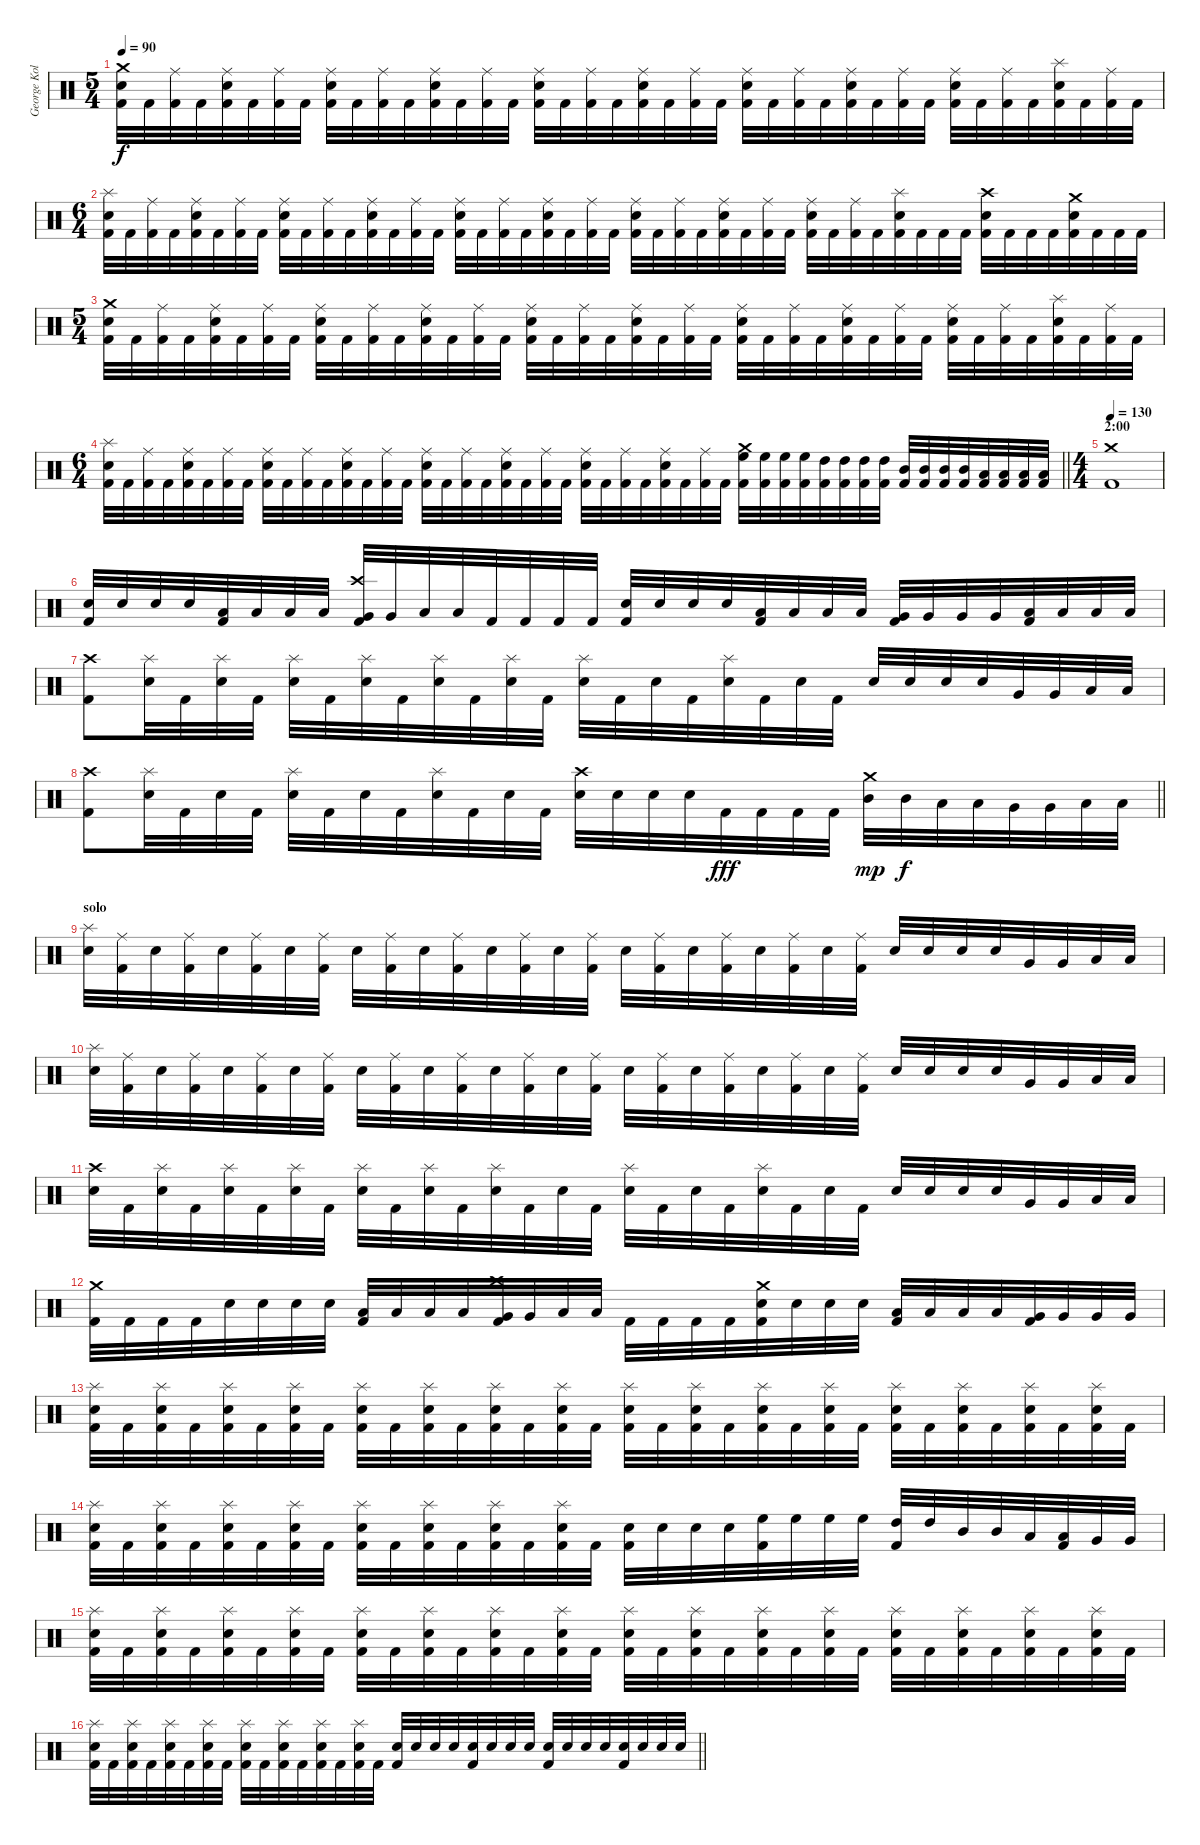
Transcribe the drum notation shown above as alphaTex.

\track ("George Kollias" "George Kol") {instrument percussion}
\staff {score}
\articulation defaults
\ts (5 4)
\tempo 90
\clef neutral
\ks c
("Crash medium (hit)" "Electric Snare (hit)" "Kick (hit) 2").32{dy f} "Kick (hit) 2".32 ("Ride (middle)" "Kick (hit) 2").32 "Kick (hit) 2".32 ("Ride (middle)" "Electric Snare (hit)" "Kick (hit) 2").32 "Kick (hit) 2".32 ("Ride (middle)" "Kick (hit) 2").32 "Kick (hit) 2".32 ("Ride (middle)" "Electric Snare (hit)" "Kick (hit) 2").32 "Kick (hit) 2".32 ("Ride (middle)" "Kick (hit) 2").32 "Kick (hit) 2".32 ("Ride (middle)" "Electric Snare (hit)" "Kick (hit) 2").32 "Kick (hit) 2".32 ("Ride (middle)" "Kick (hit) 2").32 "Kick (hit) 2".32 ("Ride (middle)" "Electric Snare (hit)" "Kick (hit) 2").32 "Kick (hit) 2".32 ("Ride (middle)" "Kick (hit) 2").32 "Kick (hit) 2".32 ("Ride (middle)" "Electric Snare (hit)" "Kick (hit) 2").32 "Kick (hit) 2".32 ("Ride (middle)" "Kick (hit) 2").32 "Kick (hit) 2".32 ("Ride (middle)" "Electric Snare (hit)" "Kick (hit) 2").32 "Kick (hit) 2".32 ("Ride (middle)" "Kick (hit) 2").32 "Kick (hit) 2".32 ("Ride (middle)" "Electric Snare (hit)" "Kick (hit) 2").32 "Kick (hit) 2".32 ("Ride (middle)" "Kick (hit) 2").32 "Kick (hit) 2".32 ("Ride (middle)" "Electric Snare (hit)" "Kick (hit) 2").32 "Kick (hit) 2".32 ("Ride (middle)" "Kick (hit) 2").32 "Kick (hit) 2".32 ("Splash (hit)" "Electric Snare (hit)" "Kick (hit) 2").32 "Kick (hit) 2".32 ("Ride (middle)" "Kick (hit) 2").32 "Kick (hit) 2".32 |
\ts (6 4)
("Splash (hit)" "Electric Snare (hit)" "Kick (hit) 2").32 "Kick (hit) 2".32 ("Ride (middle)" "Kick (hit) 2").32 "Kick (hit) 2".32 ("Ride (middle)" "Electric Snare (hit)" "Kick (hit) 2").32 "Kick (hit) 2".32 ("Ride (middle)" "Kick (hit) 2").32 "Kick (hit) 2".32 ("Ride (middle)" "Electric Snare (hit)" "Kick (hit) 2").32 "Kick (hit) 2".32 ("Ride (middle)" "Kick (hit) 2").32 "Kick (hit) 2".32 ("Ride (middle)" "Electric Snare (hit)" "Kick (hit) 2").32 "Kick (hit) 2".32 ("Ride (middle)" "Kick (hit) 2").32 "Kick (hit) 2".32 ("Ride (middle)" "Electric Snare (hit)" "Kick (hit) 2").32 "Kick (hit) 2".32 ("Ride (middle)" "Kick (hit) 2").32 "Kick (hit) 2".32 ("Ride (middle)" "Electric Snare (hit)" "Kick (hit) 2").32 "Kick (hit) 2".32 ("Ride (middle)" "Kick (hit) 2").32 "Kick (hit) 2".32 ("Ride (middle)" "Electric Snare (hit)" "Kick (hit) 2").32 "Kick (hit) 2".32 ("Ride (middle)" "Kick (hit) 2").32 "Kick (hit) 2".32 ("Ride (middle)" "Electric Snare (hit)" "Kick (hit) 2").32 "Kick (hit) 2".32 ("Ride (middle)" "Kick (hit) 2").32 "Kick (hit) 2".32 ("Ride (middle)" "Electric Snare (hit)" "Kick (hit) 2").32 "Kick (hit) 2".32 ("Ride (middle)" "Kick (hit) 2").32 "Kick (hit) 2".32 ("Splash (hit)" "Electric Snare (hit)" "Kick (hit) 2").32 "Kick (hit) 2".32 "Kick (hit) 2".32 "Kick (hit) 2".32 ("Crash high (hit)" "Electric Snare (hit)" "Kick (hit) 2").32 "Kick (hit) 2".32 "Kick (hit) 2".32 "Kick (hit) 2".32 ("Crash medium (hit)" "Electric Snare (hit)" "Kick (hit) 2").32 "Kick (hit) 2".32 "Kick (hit) 2".32 "Kick (hit) 2".32 |
\ts (5 4)
("Crash medium (hit)" "Electric Snare (hit)" "Kick (hit) 2").32 "Kick (hit) 2".32 ("Ride (middle)" "Kick (hit) 2").32 "Kick (hit) 2".32 ("Ride (middle)" "Electric Snare (hit)" "Kick (hit) 2").32 "Kick (hit) 2".32 ("Ride (middle)" "Kick (hit) 2").32 "Kick (hit) 2".32 ("Ride (middle)" "Electric Snare (hit)" "Kick (hit) 2").32 "Kick (hit) 2".32 ("Ride (middle)" "Kick (hit) 2").32 "Kick (hit) 2".32 ("Ride (middle)" "Electric Snare (hit)" "Kick (hit) 2").32 "Kick (hit) 2".32 ("Ride (middle)" "Kick (hit) 2").32 "Kick (hit) 2".32 ("Ride (middle)" "Electric Snare (hit)" "Kick (hit) 2").32 "Kick (hit) 2".32 ("Ride (middle)" "Kick (hit) 2").32 "Kick (hit) 2".32 ("Ride (middle)" "Electric Snare (hit)" "Kick (hit) 2").32 "Kick (hit) 2".32 ("Ride (middle)" "Kick (hit) 2").32 "Kick (hit) 2".32 ("Ride (middle)" "Electric Snare (hit)" "Kick (hit) 2").32 "Kick (hit) 2".32 ("Ride (middle)" "Kick (hit) 2").32 "Kick (hit) 2".32 ("Ride (middle)" "Electric Snare (hit)" "Kick (hit) 2").32 "Kick (hit) 2".32 ("Ride (middle)" "Kick (hit) 2").32 "Kick (hit) 2".32 ("Ride (middle)" "Electric Snare (hit)" "Kick (hit) 2").32 "Kick (hit) 2".32 ("Ride (middle)" "Kick (hit) 2").32 "Kick (hit) 2".32 ("Splash (hit)" "Electric Snare (hit)" "Kick (hit) 2").32 "Kick (hit) 2".32 ("Ride (middle)" "Kick (hit) 2").32 "Kick (hit) 2".32 |
\ts (6 4)
\barLineRight lightlight
("Splash (hit)" "Electric Snare (hit)" "Kick (hit) 2").32 "Kick (hit) 2".32 ("Ride (middle)" "Kick (hit) 2").32 "Kick (hit) 2".32 ("Ride (middle)" "Electric Snare (hit)" "Kick (hit) 2").32 "Kick (hit) 2".32 ("Ride (middle)" "Kick (hit) 2").32 "Kick (hit) 2".32 ("Ride (middle)" "Electric Snare (hit)" "Kick (hit) 2").32 "Kick (hit) 2".32 ("Ride (middle)" "Kick (hit) 2").32 "Kick (hit) 2".32 ("Ride (middle)" "Electric Snare (hit)" "Kick (hit) 2").32 "Kick (hit) 2".32 ("Ride (middle)" "Kick (hit) 2").32 "Kick (hit) 2".32 ("Ride (middle)" "Electric Snare (hit)" "Kick (hit) 2").32 "Kick (hit) 2".32 ("Ride (middle)" "Kick (hit) 2").32 "Kick (hit) 2".32 ("Ride (middle)" "Electric Snare (hit)" "Kick (hit) 2").32 "Kick (hit) 2".32 ("Ride (middle)" "Kick (hit) 2").32 "Kick (hit) 2".32 ("Ride (middle)" "Electric Snare (hit)" "Kick (hit) 2").32 "Kick (hit) 2".32 ("Ride (middle)" "Kick (hit) 2").32 "Kick (hit) 2".32 ("Ride (middle)" "Electric Snare (hit)" "Kick (hit) 2").32 "Kick (hit) 2".32 ("Ride (middle)" "Kick (hit) 2").32 "Kick (hit) 2".32 ("Crash medium (hit)" "High Floor Tom (hit)" "Kick (hit) 2").32 ("High Floor Tom (hit)" "Kick (hit) 2").32 ("High Floor Tom (hit)" "Kick (hit) 2").32 ("High Floor Tom (hit)" "Kick (hit) 2").32 ("High Tom (hit)" "Kick (hit) 2").32 ("High Tom (hit)" "Kick (hit) 2").32 ("High Tom (hit)" "Kick (hit) 2").32 ("High Tom (hit)" "Kick (hit) 2").32 ("Mid Tom (hit)" "Kick (hit) 2").32 ("Mid Tom (hit)" "Kick (hit) 2").32 ("Mid Tom (hit)" "Kick (hit) 2").32 ("Mid Tom (hit)" "Kick (hit) 2").32 ("Low Tom (hit)" "Kick (hit) 2").32 ("Low Tom (hit)" "Kick (hit) 2").32 ("Low Tom (hit)" "Kick (hit) 2").32 ("Low Tom (hit)" "Kick (hit) 2").32 |
\ts (4 4)
\section ("" "2:00")
\tempo 130
("Crash medium (hit)" "Kick (hit) 2").1 |
("Electric Snare (hit)" "Kick (hit) 2").32 "Electric Snare (hit)".32 "Electric Snare (hit)".32 "Electric Snare (hit)".32 ("Low Tom (hit)" "Kick (hit) 2").32 "Low Tom (hit)".32 "Low Tom (hit)".32 "Low Tom (hit)".32 ("Crash high (hit)" "Very Low Tom (hit)" "Kick (hit) 2").32 "Very Low Tom (hit)".32 "Low Floor Tom (hit)".32 "Low Floor Tom (hit)".32 "Kick (hit) 2".32 "Kick (hit) 2".32 "Kick (hit) 2".32 "Kick (hit) 2".32 ("Electric Snare (hit)" "Kick (hit) 2").32 "Electric Snare (hit)".32 "Electric Snare (hit)".32 "Electric Snare (hit)".32 ("Low Tom (hit)" "Kick (hit) 2").32 "Low Tom (hit)".32 "Low Tom (hit)".32 "Low Tom (hit)".32 ("Very Low Tom (hit)" "Kick (hit) 2").32 "Very Low Tom (hit)".32 "Very Low Tom (hit)".32 "Very Low Tom (hit)".32 ("Low Floor Tom (hit)" "Kick (hit) 2").32 "Low Floor Tom (hit)".32 "Low Floor Tom (hit)".32 "Low Floor Tom (hit)".32 |
("Crash high (hit)" "Kick (hit) 2").8 ("Splash (hit)" "Electric Snare (hit)").32 "Kick (hit) 2".32 ("Splash (hit)" "Electric Snare (hit)").32 "Kick (hit) 2".32 ("Splash (hit)" "Electric Snare (hit)").32 "Kick (hit) 2".32 ("Splash (hit)" "Electric Snare (hit)").32 "Kick (hit) 2".32 ("Splash (hit)" "Electric Snare (hit)").32 "Kick (hit) 2".32 ("Splash (hit)" "Electric Snare (hit)").32 "Kick (hit) 2".32 ("Splash (hit)" "Electric Snare (hit)").32 "Kick (hit) 2".32 "Electric Snare (hit)".32 "Kick (hit) 2".32 ("Splash (hit)" "Electric Snare (hit)").32 "Kick (hit) 2".32 "Electric Snare (hit)".32 "Kick (hit) 2".32 "Electric Snare (hit)".32 "Electric Snare (hit)".32 "Electric Snare (hit)".32 "Electric Snare (hit)".32 "Very Low Tom (hit)".32 "Very Low Tom (hit)".32 "Low Floor Tom (hit)".32 "Low Floor Tom (hit)".32 |
\barLineRight lightlight
("Crash high (hit)" "Kick (hit) 2").8 ("Splash (hit)" "Electric Snare (hit)").32 "Kick (hit) 2".32 "Electric Snare (hit)".32 "Kick (hit) 2".32 ("Splash (hit)" "Electric Snare (hit)").32 "Kick (hit) 2".32 "Electric Snare (hit)".32 "Kick (hit) 2".32 ("Splash (hit)" "Electric Snare (hit)").32 "Kick (hit) 2".32 "Electric Snare (hit)".32 "Kick (hit) 2".32 ("Crash high (hit)" "Electric Snare (hit)").32 "Electric Snare (hit)".32 "Electric Snare (hit)".32 "Electric Snare (hit)".32 "Kick (hit) 2".32{dy fff} "Kick (hit) 2".32 "Kick (hit) 2".32 "Kick (hit) 2".32 ("Crash medium (hit)" "Mid Tom (hit)").32{dy mp} "Mid Tom (hit)".32{dy f} "Low Tom (hit)".32 "Low Tom (hit)".32 "Very Low Tom (hit)".32 "Very Low Tom (hit)".32 "Low Floor Tom (hit)".32 "Low Floor Tom (hit)".32 |
\section ("" "solo")
("Splash (hit)" "Electric Snare (hit)").32 ("Ride (middle)" "Kick (hit) 2").32 "Electric Snare (hit)".32 ("Ride (middle)" "Kick (hit) 2").32 "Electric Snare (hit)".32 ("Ride (middle)" "Kick (hit) 2").32 "Electric Snare (hit)".32 ("Ride (middle)" "Kick (hit) 2").32 "Electric Snare (hit)".32 ("Ride (middle)" "Kick (hit) 2").32 "Electric Snare (hit)".32 ("Ride (middle)" "Kick (hit) 2").32 "Electric Snare (hit)".32 ("Ride (middle)" "Kick (hit) 2").32 "Electric Snare (hit)".32 ("Ride (middle)" "Kick (hit) 2").32 "Electric Snare (hit)".32 ("Ride (middle)" "Kick (hit) 2").32 "Electric Snare (hit)".32 ("Ride (middle)" "Kick (hit) 2").32 "Electric Snare (hit)".32 ("Ride (middle)" "Kick (hit) 2").32 "Electric Snare (hit)".32 ("Ride (middle)" "Kick (hit) 2").32 "Electric Snare (hit)".32 "Electric Snare (hit)".32 "Electric Snare (hit)".32 "Electric Snare (hit)".32 "Very Low Tom (hit)".32 "Very Low Tom (hit)".32 "Low Floor Tom (hit)".32 "Low Floor Tom (hit)".32 |
("Splash (hit)" "Electric Snare (hit)").32 ("Ride (middle)" "Kick (hit) 2").32 "Electric Snare (hit)".32 ("Ride (middle)" "Kick (hit) 2").32 "Electric Snare (hit)".32 ("Ride (middle)" "Kick (hit) 2").32 "Electric Snare (hit)".32 ("Ride (middle)" "Kick (hit) 2").32 "Electric Snare (hit)".32 ("Ride (middle)" "Kick (hit) 2").32 "Electric Snare (hit)".32 ("Ride (middle)" "Kick (hit) 2").32 "Electric Snare (hit)".32 ("Ride (middle)" "Kick (hit) 2").32 "Electric Snare (hit)".32 ("Ride (middle)" "Kick (hit) 2").32 "Electric Snare (hit)".32 ("Ride (middle)" "Kick (hit) 2").32 "Electric Snare (hit)".32 ("Ride (middle)" "Kick (hit) 2").32 "Electric Snare (hit)".32 ("Ride (middle)" "Kick (hit) 2").32 "Electric Snare (hit)".32 ("Ride (middle)" "Kick (hit) 2").32 "Electric Snare (hit)".32 "Electric Snare (hit)".32 "Electric Snare (hit)".32 "Electric Snare (hit)".32 "Very Low Tom (hit)".32 "Very Low Tom (hit)".32 "Low Floor Tom (hit)".32 "Low Floor Tom (hit)".32 |
("Crash high (hit)" "Electric Snare (hit)").32 "Kick (hit) 2".32 ("Splash (hit)" "Electric Snare (hit)").32 "Kick (hit) 2".32 ("Splash (hit)" "Electric Snare (hit)").32 "Kick (hit) 2".32 ("Splash (hit)" "Electric Snare (hit)").32 "Kick (hit) 2".32 ("Splash (hit)" "Electric Snare (hit)").32 "Kick (hit) 2".32 ("Splash (hit)" "Electric Snare (hit)").32 "Kick (hit) 2".32 ("Splash (hit)" "Electric Snare (hit)").32 "Kick (hit) 2".32 "Electric Snare (hit)".32 "Kick (hit) 2".32 ("Splash (hit)" "Electric Snare (hit)").32 "Kick (hit) 2".32 "Electric Snare (hit)".32 "Kick (hit) 2".32 ("Splash (hit)" "Electric Snare (hit)").32 "Kick (hit) 2".32 "Electric Snare (hit)".32 "Kick (hit) 2".32 "Electric Snare (hit)".32 "Electric Snare (hit)".32 "Electric Snare (hit)".32 "Electric Snare (hit)".32 "Very Low Tom (hit)".32 "Very Low Tom (hit)".32 "Low Floor Tom (hit)".32 "Low Floor Tom (hit)".32 |
("Crash medium (hit)" "Kick (hit) 2").32 "Kick (hit) 2".32 "Kick (hit) 2".32 "Kick (hit) 2".32 "Electric Snare (hit)".32 "Electric Snare (hit)".32 "Electric Snare (hit)".32 "Electric Snare (hit)".32 ("Low Tom (hit)" "Kick (hit) 2").32 "Low Tom (hit)".32 "Low Tom (hit)".32 "Low Tom (hit)".32 ("Crash high (hit)" "Very Low Tom (hit)" "Kick (hit) 2").32 "Very Low Tom (hit)".32 "Low Floor Tom (hit)".32 "Low Floor Tom (hit)".32 "Kick (hit) 2".32 "Kick (hit) 2".32 "Kick (hit) 2".32 "Kick (hit) 2".32 ("Crash medium (hit)" "Electric Snare (hit)" "Kick (hit) 2").32 "Electric Snare (hit)".32 "Electric Snare (hit)".32 "Electric Snare (hit)".32 ("Low Tom (hit)" "Kick (hit) 2").32 "Low Tom (hit)".32 "Low Tom (hit)".32 "Low Tom (hit)".32 ("Very Low Tom (hit)" "Kick (hit) 2").32 "Very Low Tom (hit)".32 "Very Low Tom (hit)".32 "Very Low Tom (hit)".32 |
("Splash (hit)" "Electric Snare (hit)" "Kick (hit) 2").32 "Kick (hit) 2".32 ("Splash (hit)" "Electric Snare (hit)" "Kick (hit) 2").32 "Kick (hit) 2".32 ("Splash (hit)" "Electric Snare (hit)" "Kick (hit) 2").32 "Kick (hit) 2".32 ("Splash (hit)" "Electric Snare (hit)" "Kick (hit) 2").32 "Kick (hit) 2".32 ("Splash (hit)" "Electric Snare (hit)" "Kick (hit) 2").32 "Kick (hit) 2".32 ("Splash (hit)" "Electric Snare (hit)" "Kick (hit) 2").32 "Kick (hit) 2".32 ("Splash (hit)" "Electric Snare (hit)" "Kick (hit) 2").32 "Kick (hit) 2".32 ("Splash (hit)" "Electric Snare (hit)" "Kick (hit) 2").32 "Kick (hit) 2".32 ("Splash (hit)" "Electric Snare (hit)" "Kick (hit) 2").32 "Kick (hit) 2".32 ("Splash (hit)" "Electric Snare (hit)" "Kick (hit) 2").32 "Kick (hit) 2".32 ("Splash (hit)" "Electric Snare (hit)" "Kick (hit) 2").32 "Kick (hit) 2".32 ("Splash (hit)" "Electric Snare (hit)" "Kick (hit) 2").32 "Kick (hit) 2".32 ("Splash (hit)" "Electric Snare (hit)" "Kick (hit) 2").32 "Kick (hit) 2".32 ("Splash (hit)" "Electric Snare (hit)" "Kick (hit) 2").32 "Kick (hit) 2".32 ("Splash (hit)" "Electric Snare (hit)" "Kick (hit) 2").32 "Kick (hit) 2".32 ("Splash (hit)" "Electric Snare (hit)" "Kick (hit) 2").32 "Kick (hit) 2".32 |
("Splash (hit)" "Electric Snare (hit)" "Kick (hit) 2").32 "Kick (hit) 2".32 ("Splash (hit)" "Electric Snare (hit)" "Kick (hit) 2").32 "Kick (hit) 2".32 ("Splash (hit)" "Electric Snare (hit)" "Kick (hit) 2").32 "Kick (hit) 2".32 ("Splash (hit)" "Electric Snare (hit)" "Kick (hit) 2").32 "Kick (hit) 2".32 ("Splash (hit)" "Electric Snare (hit)" "Kick (hit) 2").32 "Kick (hit) 2".32 ("Splash (hit)" "Electric Snare (hit)" "Kick (hit) 2").32 "Kick (hit) 2".32 ("Splash (hit)" "Electric Snare (hit)" "Kick (hit) 2").32 "Kick (hit) 2".32 ("Splash (hit)" "Electric Snare (hit)" "Kick (hit) 2").32 "Kick (hit) 2".32 ("Electric Snare (hit)" "Kick (hit) 2").32 "Electric Snare (hit)".32 "Electric Snare (hit)".32 "Electric Snare (hit)".32 ("High Floor Tom (hit)" "Kick (hit) 2").32 "High Floor Tom (hit)".32 "High Floor Tom (hit)".32 "High Floor Tom (hit)".32 ("High Tom (hit)" "Kick (hit) 2").32 "High Tom (hit)".32 "Mid Tom (hit)".32 "Mid Tom (hit)".32 "Low Tom (hit)".32 ("Low Tom (hit)" "Kick (hit) 2").32 "Very Low Tom (hit)".32 "Very Low Tom (hit)".32 |
("Splash (hit)" "Electric Snare (hit)" "Kick (hit) 2").32 "Kick (hit) 2".32 ("Splash (hit)" "Electric Snare (hit)" "Kick (hit) 2").32 "Kick (hit) 2".32 ("Splash (hit)" "Electric Snare (hit)" "Kick (hit) 2").32 "Kick (hit) 2".32 ("Splash (hit)" "Electric Snare (hit)" "Kick (hit) 2").32 "Kick (hit) 2".32 ("Splash (hit)" "Electric Snare (hit)" "Kick (hit) 2").32 "Kick (hit) 2".32 ("Splash (hit)" "Electric Snare (hit)" "Kick (hit) 2").32 "Kick (hit) 2".32 ("Splash (hit)" "Electric Snare (hit)" "Kick (hit) 2").32 "Kick (hit) 2".32 ("Splash (hit)" "Electric Snare (hit)" "Kick (hit) 2").32 "Kick (hit) 2".32 ("Splash (hit)" "Electric Snare (hit)" "Kick (hit) 2").32 "Kick (hit) 2".32 ("Splash (hit)" "Electric Snare (hit)" "Kick (hit) 2").32 "Kick (hit) 2".32 ("Splash (hit)" "Electric Snare (hit)" "Kick (hit) 2").32 "Kick (hit) 2".32 ("Splash (hit)" "Electric Snare (hit)" "Kick (hit) 2").32 "Kick (hit) 2".32 ("Splash (hit)" "Electric Snare (hit)" "Kick (hit) 2").32 "Kick (hit) 2".32 ("Splash (hit)" "Electric Snare (hit)" "Kick (hit) 2").32 "Kick (hit) 2".32 ("Splash (hit)" "Electric Snare (hit)" "Kick (hit) 2").32 "Kick (hit) 2".32 ("Splash (hit)" "Electric Snare (hit)" "Kick (hit) 2").32 "Kick (hit) 2".32 |
\barLineRight lightlight
("Splash (hit)" "Electric Snare (hit)" "Kick (hit) 2").32 "Kick (hit) 2".32 ("Splash (hit)" "Electric Snare (hit)" "Kick (hit) 2").32 "Kick (hit) 2".32 ("Splash (hit)" "Electric Snare (hit)" "Kick (hit) 2").32 "Kick (hit) 2".32 ("Splash (hit)" "Electric Snare (hit)" "Kick (hit) 2").32 "Kick (hit) 2".32 ("Splash (hit)" "Electric Snare (hit)" "Kick (hit) 2").32 "Kick (hit) 2".32 ("Splash (hit)" "Electric Snare (hit)" "Kick (hit) 2").32 "Kick (hit) 2".32 ("Splash (hit)" "Electric Snare (hit)" "Kick (hit) 2").32 "Kick (hit) 2".32 ("Splash (hit)" "Electric Snare (hit)" "Kick (hit) 2").32 "Kick (hit) 2".32 ("Electric Snare (hit)" "Kick (hit) 2").32 "Electric Snare (hit)".32 "Electric Snare (hit)".32 "Electric Snare (hit)".32 ("Electric Snare (hit)" "Kick (hit) 2").32 "Electric Snare (hit)".32 "Electric Snare (hit)".32 "Electric Snare (hit)".32 ("Electric Snare (hit)" "Kick (hit) 2").32 "Electric Snare (hit)".32 "Electric Snare (hit)".32 "Electric Snare (hit)".32 ("Electric Snare (hit)" "Kick (hit) 2").32 "Electric Snare (hit)".32 "Electric Snare (hit)".32 "Electric Snare (hit)".32
